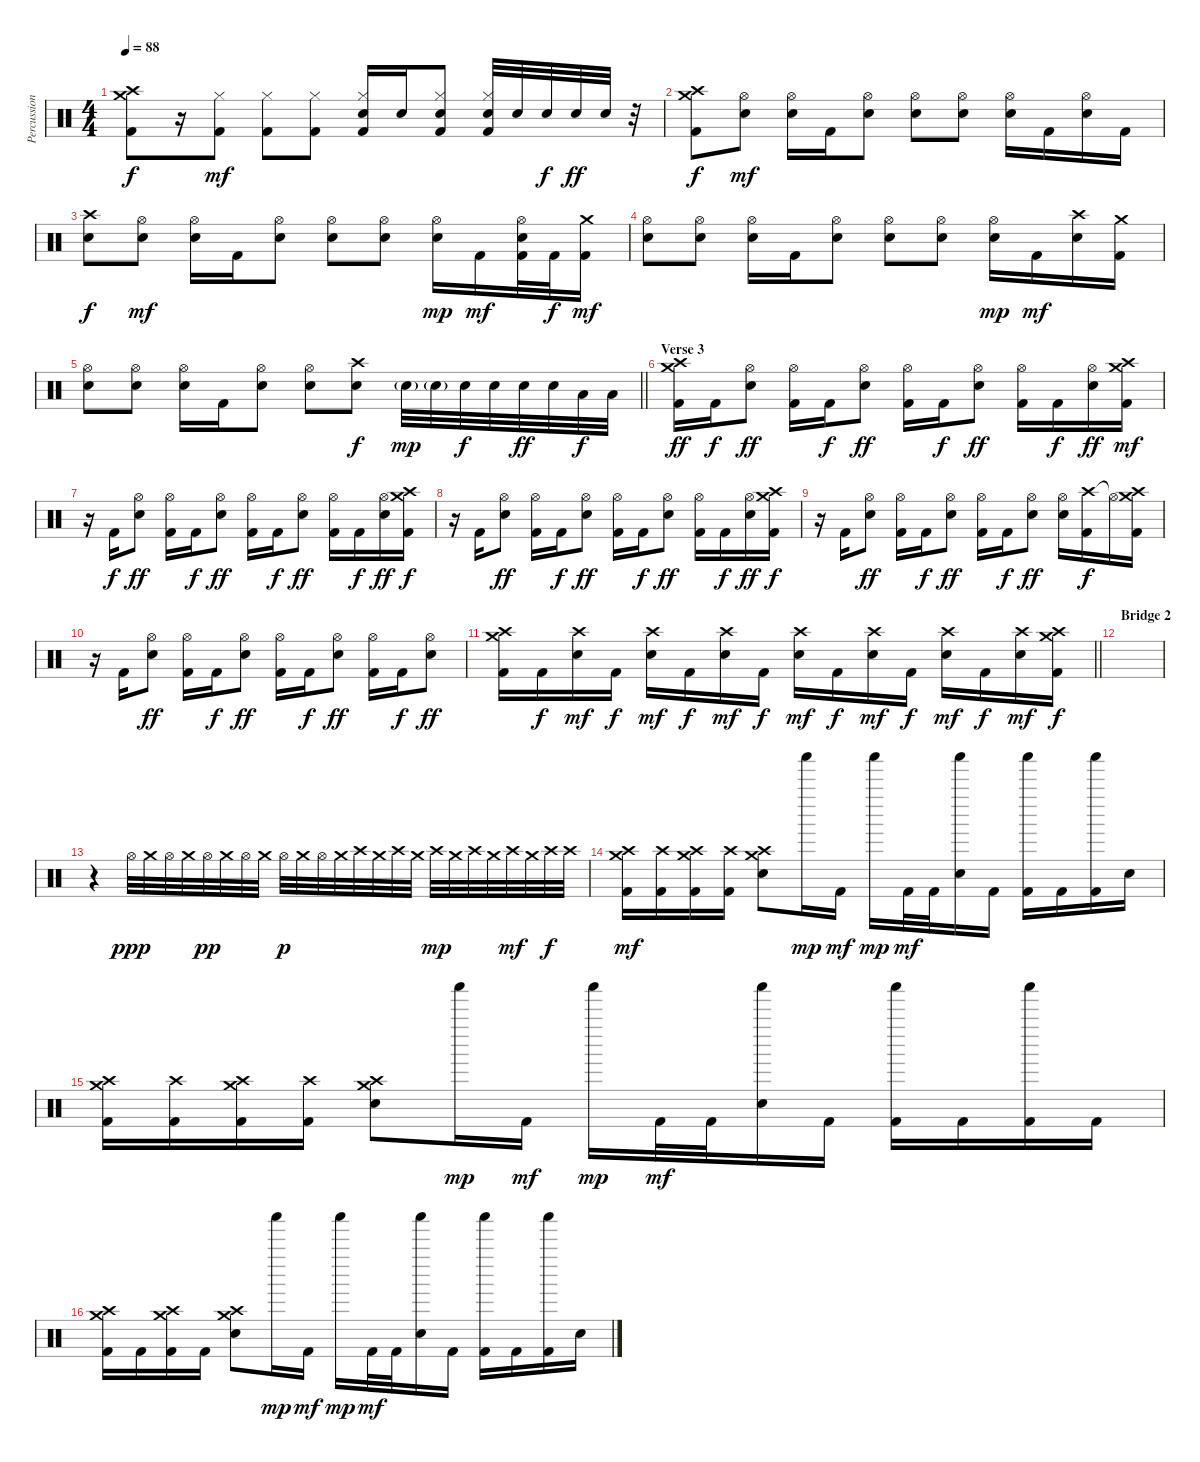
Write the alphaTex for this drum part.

\track ("Percussion" "Percussion") {instrument percussion}
\staff {score}
\articulation defaults
\ts (4 4)
\tempo 88
\clef neutral
\ks c
("Crash medium (hit)" "Crash high (hit)" "Kick (hit) 2").8{dy f} r.16 ("Hi-Hat (closed)" "Kick (hit) 2").8{dy mf} ("Hi-Hat (closed)" "Kick (hit) 2").8 ("Hi-Hat (closed)" "Kick (hit) 2").8 ("Hi-Hat (closed)" "Electric Snare (hit)" "Kick (hit) 2").16 "Electric Snare (hit)".16 ("Hi-Hat (closed)" "Electric Snare (hit)" "Kick (hit) 2").8 ("Hi-Hat (closed)" "Electric Snare (hit)" "Kick (hit) 2").32 "Electric Snare (hit)".32 "Electric Snare (hit)".32{dy f} "Electric Snare (hit)".32{dy ff} "Electric Snare (hit)".32 r.32 |
("Crash high (hit)" "Crash medium (hit)" "Kick (hit) 2").8{dy f} ("Hi-Hat (open)" "Electric Snare (hit)").8{dy mf} ("Hi-Hat (open)" "Electric Snare (hit)").16 "Kick (hit) 2".16 ("Hi-Hat (open)" "Electric Snare (hit)").8 ("Hi-Hat (open)" "Electric Snare (hit)").8 ("Hi-Hat (open)" "Electric Snare (hit)").8 ("Hi-Hat (open)" "Electric Snare (hit)").16 "Kick (hit) 2".16 ("Hi-Hat (open)" "Electric Snare (hit)").16 "Kick (hit) 2".16 |
("Crash high (hit)" "Electric Snare (hit)").8{dy f} ("Hi-Hat (open)" "Electric Snare (hit)").8{dy mf} ("Hi-Hat (open)" "Electric Snare (hit)").16 "Kick (hit) 2".16 ("Hi-Hat (open)" "Electric Snare (hit)").8 ("Hi-Hat (open)" "Electric Snare (hit)").8 ("Hi-Hat (open)" "Electric Snare (hit)").8 ("Hi-Hat (open)" "Electric Snare (hit)").16{dy mp} "Kick (hit) 2".16{dy mf} ("Hi-Hat (open)" "Electric Snare (hit)" "Kick (hit) 2").32 "Kick (hit) 2".32{dy f} ("Crash medium (hit)" "Kick (hit) 2").16{dy mf} |
("Hi-Hat (open)" "Electric Snare (hit)").8 ("Hi-Hat (open)" "Electric Snare (hit)").8 ("Hi-Hat (open)" "Electric Snare (hit)").16 "Kick (hit) 2".16 ("Hi-Hat (open)" "Electric Snare (hit)").8 ("Hi-Hat (open)" "Electric Snare (hit)").8 ("Hi-Hat (open)" "Electric Snare (hit)").8 ("Hi-Hat (open)" "Electric Snare (hit)").16{dy mp} "Kick (hit) 2".16{dy mf} ("Crash high (hit)" "Electric Snare (hit)").16 ("Crash medium (hit)" "Kick (hit) 2").16 |
\barLineRight lightlight
("Hi-Hat (open)" "Electric Snare (hit)").8 ("Hi-Hat (open)" "Electric Snare (hit)").8 ("Hi-Hat (open)" "Electric Snare (hit)").16 "Kick (hit) 2".16 ("Hi-Hat (open)" "Electric Snare (hit)").8 ("Hi-Hat (open)" "Electric Snare (hit)").8 ("Crash high (hit)" "Electric Snare (hit)").8{dy f} "Electric Snare (hit)"{g}.32{dy mp} "Electric Snare (hit)"{g}.32 "Electric Snare (hit)".32{dy f} "Electric Snare (hit)".32 "Electric Snare (hit)".32{dy ff} "Electric Snare (hit)".32 "Low Tom (hit)".32{dy f} "Low Tom (hit)".32 |
\section ("" "Verse 3")
("Crash medium (hit)" "Crash high (hit)" "Kick (hit) 2").16{dy ff} "Kick (hit) 2".16{dy f} ("Hi-Hat (open)" "Electric Snare (hit)").8{dy ff} ("Hi-Hat (open)" "Kick (hit) 2").16 "Kick (hit) 2".16{dy f} ("Hi-Hat (open)" "Electric Snare (hit)").8{dy ff} ("Hi-Hat (open)" "Kick (hit) 2").16 "Kick (hit) 2".16{dy f} ("Hi-Hat (open)" "Electric Snare (hit)").8{dy ff} ("Hi-Hat (open)" "Kick (hit) 2").16 "Kick (hit) 2".16{dy f} ("Hi-Hat (open)" "Electric Snare (hit)").16{dy ff} ("Crash high (hit)" "Crash medium (hit)" "Kick (hit) 2").16{dy mf} |
r.16 "Kick (hit) 2".16{dy f} ("Hi-Hat (open)" "Electric Snare (hit)").8{dy ff} ("Hi-Hat (open)" "Kick (hit) 2").16 "Kick (hit) 2".16{dy f} ("Hi-Hat (open)" "Electric Snare (hit)").8{dy ff} ("Hi-Hat (open)" "Kick (hit) 2").16 "Kick (hit) 2".16{dy f} ("Hi-Hat (open)" "Electric Snare (hit)").8{dy ff} ("Hi-Hat (open)" "Kick (hit) 2").16 "Kick (hit) 2".16{dy f} ("Hi-Hat (open)" "Electric Snare (hit)").16{dy ff} ("Crash high (hit)" "Crash medium (hit)" "Kick (hit) 2").16{dy f} |
r.16 "Kick (hit) 2".16 ("Hi-Hat (open)" "Electric Snare (hit)").8{dy ff} ("Hi-Hat (open)" "Kick (hit) 2").16 "Kick (hit) 2".16{dy f} ("Hi-Hat (open)" "Electric Snare (hit)").8{dy ff} ("Hi-Hat (open)" "Kick (hit) 2").16 "Kick (hit) 2".16{dy f} ("Hi-Hat (open)" "Electric Snare (hit)").8{dy ff} ("Hi-Hat (open)" "Kick (hit) 2").16 "Kick (hit) 2".16{dy f} ("Hi-Hat (open)" "Electric Snare (hit)").16{dy ff} ("Crash high (hit)" "Crash medium (hit)" "Kick (hit) 2").16{dy f} |
r.16 "Kick (hit) 2".16 ("Hi-Hat (open)" "Electric Snare (hit)").8{dy ff} ("Hi-Hat (open)" "Kick (hit) 2").16 "Kick (hit) 2".16{dy f} ("Hi-Hat (open)" "Electric Snare (hit)").8{dy ff} ("Hi-Hat (open)" "Kick (hit) 2").16 "Kick (hit) 2".16{dy f} ("Hi-Hat (open)" "Electric Snare (hit)").8{dy ff} ("Hi-Hat (open)" "Electric Snare (hit)").16 ("Crash high (hit)" "Kick (hit) 2").16{dy f} "Hi-Hat (open)"{t}.16 ("Crash high (hit)" "Crash medium (hit)" "Kick (hit) 2").16 |
r.16 "Kick (hit) 2".16 ("Hi-Hat (open)" "Electric Snare (hit)").8{dy ff} ("Hi-Hat (open)" "Kick (hit) 2").16 "Kick (hit) 2".16{dy f} ("Hi-Hat (open)" "Electric Snare (hit)").8{dy ff} ("Hi-Hat (open)" "Kick (hit) 2").16 "Kick (hit) 2".16{dy f} ("Hi-Hat (open)" "Electric Snare (hit)").8{dy ff} ("Hi-Hat (open)" "Kick (hit) 2").16 "Kick (hit) 2".16{dy f} ("Hi-Hat (open)" "Electric Snare (hit)").8{dy ff} |
\barLineRight lightlight
("Crash high (hit)" "Crash medium (hit)" "Kick (hit) 2").16 "Kick (hit) 2".16{dy f} ("Crash high (hit)" "Electric Snare (hit)").16{dy mf} "Kick (hit) 2".16{dy f} ("Crash high (hit)" "Electric Snare (hit)").16{dy mf} "Kick (hit) 2".16{dy f} ("Crash high (hit)" "Electric Snare (hit)").16{dy mf} "Kick (hit) 2".16{dy f} ("Crash high (hit)" "Electric Snare (hit)").16{dy mf} "Kick (hit) 2".16{dy f} ("Crash high (hit)" "Electric Snare (hit)").16{dy mf} "Kick (hit) 2".16{dy f} ("Crash high (hit)" "Electric Snare (hit)").16{dy mf} "Kick (hit) 2".16{dy f} ("Crash high (hit)" "Electric Snare (hit)").16{dy mf} ("Crash high (hit)" "Crash medium (hit)" "Kick (hit) 2").16{dy f} |
\section ("" "Bridge 2")
|
r.4 "Hi-Hat (open)".32{dy ppp} "Crash medium (hit)".32 "Hi-Hat (open)".32 "Crash medium (hit)".32 "Hi-Hat (open)".32{dy pp} "Crash medium (hit)".32 "Hi-Hat (open)".32 "Crash medium (hit)".32 "Hi-Hat (open)".32{dy p} "Crash medium (hit)".32 "Hi-Hat (open)".32 "Crash medium (hit)".32 "Crash high (hit)".32 "Crash medium (hit)".32 "Crash high (hit)".32 "Crash medium (hit)".32 "Crash high (hit)".32{dy mp} "Crash medium (hit)".32 "Crash high (hit)".32 "Crash medium (hit)".32 "Crash high (hit)".32{dy mf} "Crash medium (hit)".32 "Crash high (hit)".32{dy f} "Crash high (hit)".32 |
("Crash high (hit)" "Crash medium (hit)" "Kick (hit) 2").16{dy mf} ("Crash high (hit)" "Kick (hit) 2").16 ("Crash high (hit)" "Crash medium (hit)" "Kick (hit) 2").16 ("Crash high (hit)" "Kick (hit) 2").16 ("Crash high (hit)" "Crash medium (hit)" "Electric Snare (hit)").8 "Shaker (hit)".16{dy mp} "Kick (hit) 2".16{dy mf} "Shaker (hit)".16{dy mp} "Kick (hit) 2".32{dy mf} "Kick (hit) 2".32 ("Shaker (hit)" "Electric Snare (hit)").16 "Kick (hit) 2".16 ("Shaker (hit)" "Kick (hit) 2").16 "Kick (hit) 2".16 ("Shaker (hit)" "Kick (hit) 2").16 "Electric Snare (hit)".16 |
("Crash high (hit)" "Crash medium (hit)" "Kick (hit) 2").16 ("Crash high (hit)" "Kick (hit) 2").16 ("Crash high (hit)" "Crash medium (hit)" "Kick (hit) 2").16 ("Crash high (hit)" "Kick (hit) 2").16 ("Crash high (hit)" "Crash medium (hit)" "Electric Snare (hit)").8 "Shaker (hit)".16{dy mp} "Kick (hit) 2".16{dy mf} "Shaker (hit)".16{dy mp} "Kick (hit) 2".32{dy mf} "Kick (hit) 2".32 ("Shaker (hit)" "Electric Snare (hit)").16 "Kick (hit) 2".16 ("Shaker (hit)" "Kick (hit) 2").16 "Kick (hit) 2".16 ("Shaker (hit)" "Kick (hit) 2").16 "Kick (hit) 2".16 |
("Crash high (hit)" "Crash medium (hit)" "Kick (hit) 2").16 "Kick (hit) 2".16 ("Crash high (hit)" "Crash medium (hit)" "Kick (hit) 2").16 "Kick (hit) 2".16 ("Crash high (hit)" "Crash medium (hit)" "Electric Snare (hit)").8 "Shaker (hit)".16{dy mp} "Kick (hit) 2".16{dy mf} "Shaker (hit)".16{dy mp} "Kick (hit) 2".32{dy mf} "Kick (hit) 2".32 ("Shaker (hit)" "Electric Snare (hit)").16 "Kick (hit) 2".16 ("Shaker (hit)" "Kick (hit) 2").16 "Kick (hit) 2".16 ("Shaker (hit)" "Kick (hit) 2").16 "Electric Snare (hit)".16
